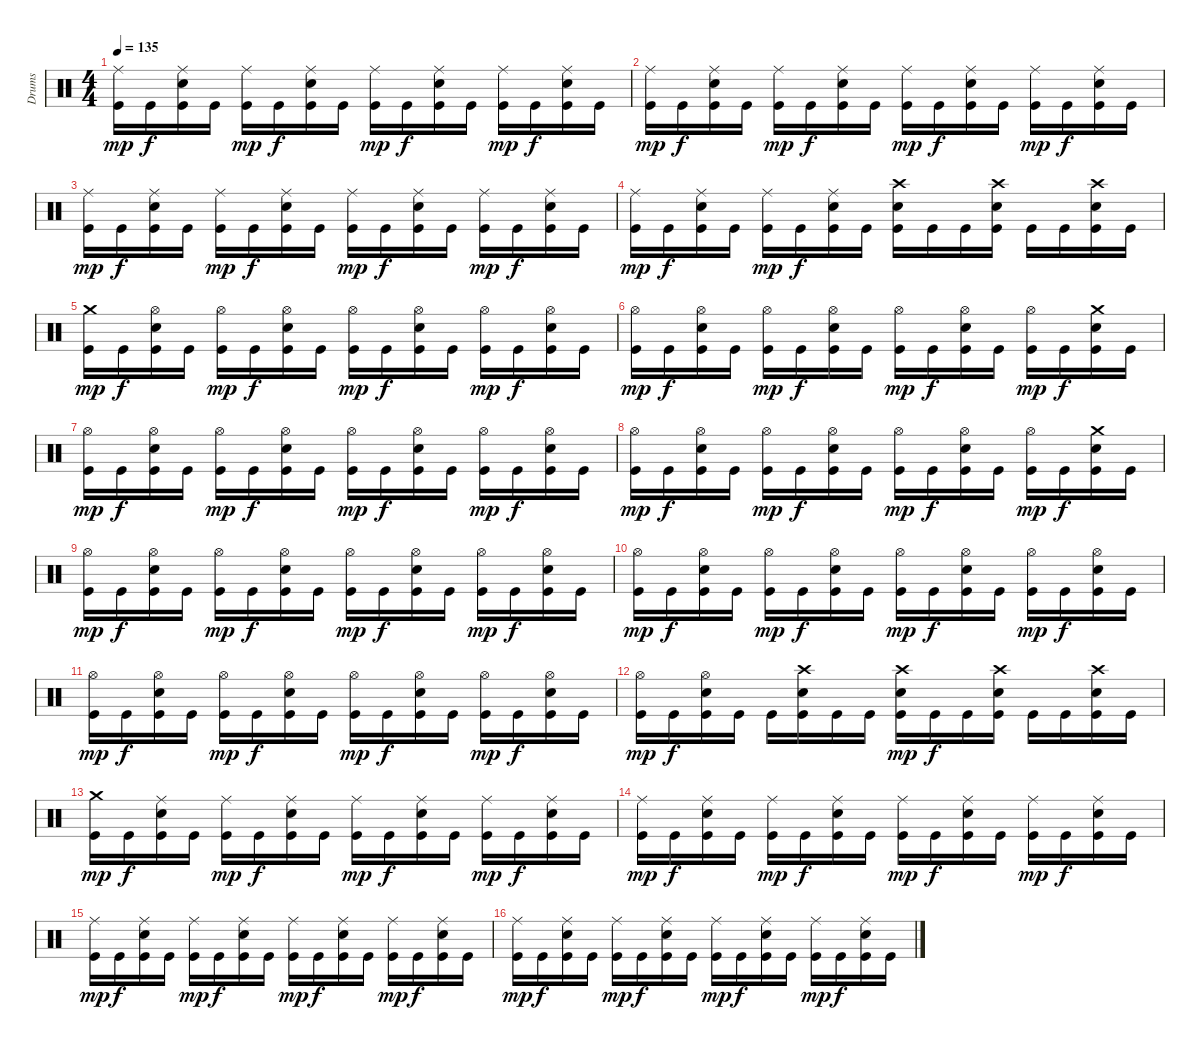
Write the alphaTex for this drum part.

\track ("Drums" "Drums") {instrument percussion}
\staff {score}
\articulation defaults
\ts (4 4)
\tempo 135
\clef neutral
\ks c
("Ride (middle)" "Kick (hit)").16{dy mp} "Kick (hit)".16{dy f} ("Ride (middle)" "Snare (hit) 2" "Kick (hit)").16 "Kick (hit)".16 ("Ride (middle)" "Kick (hit)").16{dy mp} "Kick (hit)".16{dy f} ("Ride (middle)" "Snare (hit) 2" "Kick (hit)").16 "Kick (hit)".16 ("Ride (middle)" "Kick (hit)").16{dy mp} "Kick (hit)".16{dy f} ("Ride (middle)" "Snare (hit) 2" "Kick (hit)").16 "Kick (hit)".16 ("Ride (middle)" "Kick (hit)").16{dy mp} "Kick (hit)".16{dy f} ("Ride (middle)" "Snare (hit) 2" "Kick (hit)").16 "Kick (hit)".16 |
("Ride (middle)" "Kick (hit)").16{dy mp} "Kick (hit)".16{dy f} ("Ride (middle)" "Snare (hit) 2" "Kick (hit)").16 "Kick (hit)".16 ("Ride (middle)" "Kick (hit)").16{dy mp} "Kick (hit)".16{dy f} ("Ride (middle)" "Snare (hit) 2" "Kick (hit)").16 "Kick (hit)".16 ("Ride (middle)" "Kick (hit)").16{dy mp} "Kick (hit)".16{dy f} ("Ride (middle)" "Snare (hit) 2" "Kick (hit)").16 "Kick (hit)".16 ("Ride (middle)" "Kick (hit)").16{dy mp} "Kick (hit)".16{dy f} ("Ride (middle)" "Snare (hit) 2" "Kick (hit)").16 "Kick (hit)".16 |
("Ride (middle)" "Kick (hit)").16{dy mp} "Kick (hit)".16{dy f} ("Ride (middle)" "Snare (hit) 2" "Kick (hit)").16 "Kick (hit)".16 ("Ride (middle)" "Kick (hit)").16{dy mp} "Kick (hit)".16{dy f} ("Ride (middle)" "Snare (hit) 2" "Kick (hit)").16 "Kick (hit)".16 ("Ride (middle)" "Kick (hit)").16{dy mp} "Kick (hit)".16{dy f} ("Ride (middle)" "Snare (hit) 2" "Kick (hit)").16 "Kick (hit)".16 ("Ride (middle)" "Kick (hit)").16{dy mp} "Kick (hit)".16{dy f} ("Ride (middle)" "Snare (hit) 2" "Kick (hit)").16 "Kick (hit)".16 |
("Ride (middle)" "Kick (hit)").16{dy mp} "Kick (hit)".16{dy f} ("Ride (middle)" "Snare (hit) 2" "Kick (hit)").16 "Kick (hit)".16 ("Ride (middle)" "Kick (hit)").16{dy mp} "Kick (hit)".16{dy f} ("Ride (middle)" "Snare (hit) 2" "Kick (hit)").16 "Kick (hit)".16 ("Crash high (hit)" "Snare (hit) 2" "Kick (hit)").16 "Kick (hit)".16 "Kick (hit)".16 ("Crash high (hit)" "Snare (hit) 2" "Kick (hit)").16 "Kick (hit)".16 "Kick (hit)".16 ("Crash high (hit)" "Snare (hit) 2" "Kick (hit)").16 "Kick (hit)".16 |
("Crash medium (hit)" "Kick (hit)").16{dy mp} "Kick (hit)".16{dy f} ("Hi-Hat (open)" "Snare (hit) 2" "Kick (hit)").16 "Kick (hit)".16 ("Hi-Hat (open)" "Kick (hit)").16{dy mp} "Kick (hit)".16{dy f} ("Hi-Hat (open)" "Snare (hit) 2" "Kick (hit)").16 "Kick (hit)".16 ("Hi-Hat (open)" "Kick (hit)").16{dy mp} "Kick (hit)".16{dy f} ("Hi-Hat (open)" "Snare (hit) 2" "Kick (hit)").16 "Kick (hit)".16 ("Hi-Hat (open)" "Kick (hit)").16{dy mp} "Kick (hit)".16{dy f} ("Hi-Hat (open)" "Snare (hit) 2" "Kick (hit)").16 "Kick (hit)".16 |
("Hi-Hat (open)" "Kick (hit)").16{dy mp} "Kick (hit)".16{dy f} ("Hi-Hat (open)" "Snare (hit) 2" "Kick (hit)").16 "Kick (hit)".16 ("Hi-Hat (open)" "Kick (hit)").16{dy mp} "Kick (hit)".16{dy f} ("Hi-Hat (open)" "Snare (hit) 2" "Kick (hit)").16 "Kick (hit)".16 ("Hi-Hat (open)" "Kick (hit)").16{dy mp} "Kick (hit)".16{dy f} ("Hi-Hat (open)" "Snare (hit) 2" "Kick (hit)").16 "Kick (hit)".16 ("Hi-Hat (open)" "Kick (hit)").16{dy mp} "Kick (hit)".16{dy f} ("Crash medium (hit)" "Snare (hit) 2" "Kick (hit)").16 "Kick (hit)".16 |
("Hi-Hat (open)" "Kick (hit)").16{dy mp} "Kick (hit)".16{dy f} ("Hi-Hat (open)" "Snare (hit) 2" "Kick (hit)").16 "Kick (hit)".16 ("Hi-Hat (open)" "Kick (hit)").16{dy mp} "Kick (hit)".16{dy f} ("Hi-Hat (open)" "Snare (hit) 2" "Kick (hit)").16 "Kick (hit)".16 ("Hi-Hat (open)" "Kick (hit)").16{dy mp} "Kick (hit)".16{dy f} ("Hi-Hat (open)" "Snare (hit) 2" "Kick (hit)").16 "Kick (hit)".16 ("Hi-Hat (open)" "Kick (hit)").16{dy mp} "Kick (hit)".16{dy f} ("Hi-Hat (open)" "Snare (hit) 2" "Kick (hit)").16 "Kick (hit)".16 |
("Hi-Hat (open)" "Kick (hit)").16{dy mp} "Kick (hit)".16{dy f} ("Hi-Hat (open)" "Snare (hit) 2" "Kick (hit)").16 "Kick (hit)".16 ("Hi-Hat (open)" "Kick (hit)").16{dy mp} "Kick (hit)".16{dy f} ("Hi-Hat (open)" "Snare (hit) 2" "Kick (hit)").16 "Kick (hit)".16 ("Hi-Hat (open)" "Kick (hit)").16{dy mp} "Kick (hit)".16{dy f} ("Hi-Hat (open)" "Snare (hit) 2" "Kick (hit)").16 "Kick (hit)".16 ("Hi-Hat (open)" "Kick (hit)").16{dy mp} "Kick (hit)".16{dy f} ("Crash medium (hit)" "Snare (hit) 2" "Kick (hit)").16 "Kick (hit)".16 |
("Hi-Hat (open)" "Kick (hit)").16{dy mp} "Kick (hit)".16{dy f} ("Hi-Hat (open)" "Snare (hit) 2" "Kick (hit)").16 "Kick (hit)".16 ("Hi-Hat (open)" "Kick (hit)").16{dy mp} "Kick (hit)".16{dy f} ("Hi-Hat (open)" "Snare (hit) 2" "Kick (hit)").16 "Kick (hit)".16 ("Hi-Hat (open)" "Kick (hit)").16{dy mp} "Kick (hit)".16{dy f} ("Hi-Hat (open)" "Snare (hit) 2" "Kick (hit)").16 "Kick (hit)".16 ("Hi-Hat (open)" "Kick (hit)").16{dy mp} "Kick (hit)".16{dy f} ("Hi-Hat (open)" "Snare (hit) 2" "Kick (hit)").16 "Kick (hit)".16 |
("Hi-Hat (open)" "Kick (hit)").16{dy mp} "Kick (hit)".16{dy f} ("Hi-Hat (open)" "Snare (hit) 2" "Kick (hit)").16 "Kick (hit)".16 ("Hi-Hat (open)" "Kick (hit)").16{dy mp} "Kick (hit)".16{dy f} ("Hi-Hat (open)" "Snare (hit) 2" "Kick (hit)").16 "Kick (hit)".16 ("Hi-Hat (open)" "Kick (hit)").16{dy mp} "Kick (hit)".16{dy f} ("Hi-Hat (open)" "Snare (hit) 2" "Kick (hit)").16 "Kick (hit)".16 ("Hi-Hat (open)" "Kick (hit)").16{dy mp} "Kick (hit)".16{dy f} ("Hi-Hat (open)" "Snare (hit) 2" "Kick (hit)").16 "Kick (hit)".16 |
("Hi-Hat (open)" "Kick (hit)").16{dy mp} "Kick (hit)".16{dy f} ("Hi-Hat (open)" "Snare (hit) 2" "Kick (hit)").16 "Kick (hit)".16 ("Hi-Hat (open)" "Kick (hit)").16{dy mp} "Kick (hit)".16{dy f} ("Hi-Hat (open)" "Snare (hit) 2" "Kick (hit)").16 "Kick (hit)".16 ("Hi-Hat (open)" "Kick (hit)").16{dy mp} "Kick (hit)".16{dy f} ("Hi-Hat (open)" "Snare (hit) 2" "Kick (hit)").16 "Kick (hit)".16 ("Hi-Hat (open)" "Kick (hit)").16{dy mp} "Kick (hit)".16{dy f} ("Hi-Hat (open)" "Snare (hit) 2" "Kick (hit)").16 "Kick (hit)".16 |
("Hi-Hat (open)" "Kick (hit)").16{dy mp} "Kick (hit)".16{dy f} ("Hi-Hat (open)" "Snare (hit) 2" "Kick (hit)").16 "Kick (hit)".16 "Kick (hit)".16 ("Crash high (hit)" "Snare (hit) 2" "Kick (hit)").16 "Kick (hit)".16 "Kick (hit)".16 ("Crash high (hit)" "Snare (hit) 2" "Kick (hit)").16{dy mp} "Kick (hit)".16{dy f} "Kick (hit)".16 ("Crash high (hit)" "Snare (hit) 2" "Kick (hit)").16 "Kick (hit)".16 "Kick (hit)".16 ("Crash high (hit)" "Snare (hit) 2" "Kick (hit)").16 "Kick (hit)".16 |
("Crash medium (hit)" "Kick (hit)").16{dy mp} "Kick (hit)".16{dy f} ("Ride (middle)" "Snare (hit) 2" "Kick (hit)").16 "Kick (hit)".16 ("Ride (middle)" "Kick (hit)").16{dy mp} "Kick (hit)".16{dy f} ("Ride (middle)" "Snare (hit) 2" "Kick (hit)").16 "Kick (hit)".16 ("Ride (middle)" "Kick (hit)").16{dy mp} "Kick (hit)".16{dy f} ("Ride (middle)" "Snare (hit) 2" "Kick (hit)").16 "Kick (hit)".16 ("Ride (middle)" "Kick (hit)").16{dy mp} "Kick (hit)".16{dy f} ("Ride (middle)" "Snare (hit) 2" "Kick (hit)").16 "Kick (hit)".16 |
("Ride (middle)" "Kick (hit)").16{dy mp} "Kick (hit)".16{dy f} ("Ride (middle)" "Snare (hit) 2" "Kick (hit)").16 "Kick (hit)".16 ("Ride (middle)" "Kick (hit)").16{dy mp} "Kick (hit)".16{dy f} ("Ride (middle)" "Snare (hit) 2" "Kick (hit)").16 "Kick (hit)".16 ("Ride (middle)" "Kick (hit)").16{dy mp} "Kick (hit)".16{dy f} ("Ride (middle)" "Snare (hit) 2" "Kick (hit)").16 "Kick (hit)".16 ("Ride (middle)" "Kick (hit)").16{dy mp} "Kick (hit)".16{dy f} ("Ride (middle)" "Snare (hit) 2" "Kick (hit)").16 "Kick (hit)".16 |
("Ride (middle)" "Kick (hit)").16{dy mp} "Kick (hit)".16{dy f} ("Ride (middle)" "Snare (hit) 2" "Kick (hit)").16 "Kick (hit)".16 ("Ride (middle)" "Kick (hit)").16{dy mp} "Kick (hit)".16{dy f} ("Ride (middle)" "Snare (hit) 2" "Kick (hit)").16 "Kick (hit)".16 ("Ride (middle)" "Kick (hit)").16{dy mp} "Kick (hit)".16{dy f} ("Ride (middle)" "Snare (hit) 2" "Kick (hit)").16 "Kick (hit)".16 ("Ride (middle)" "Kick (hit)").16{dy mp} "Kick (hit)".16{dy f} ("Ride (middle)" "Snare (hit) 2" "Kick (hit)").16 "Kick (hit)".16 |
("Ride (middle)" "Kick (hit)").16{dy mp} "Kick (hit)".16{dy f} ("Ride (middle)" "Snare (hit) 2" "Kick (hit)").16 "Kick (hit)".16 ("Ride (middle)" "Kick (hit)").16{dy mp} "Kick (hit)".16{dy f} ("Ride (middle)" "Snare (hit) 2" "Kick (hit)").16 "Kick (hit)".16 ("Ride (middle)" "Kick (hit)").16{dy mp} "Kick (hit)".16{dy f} ("Ride (middle)" "Snare (hit) 2" "Kick (hit)").16 "Kick (hit)".16 ("Ride (middle)" "Kick (hit)").16{dy mp} "Kick (hit)".16{dy f} ("Ride (middle)" "Snare (hit) 2" "Kick (hit)").16 "Kick (hit)".16
